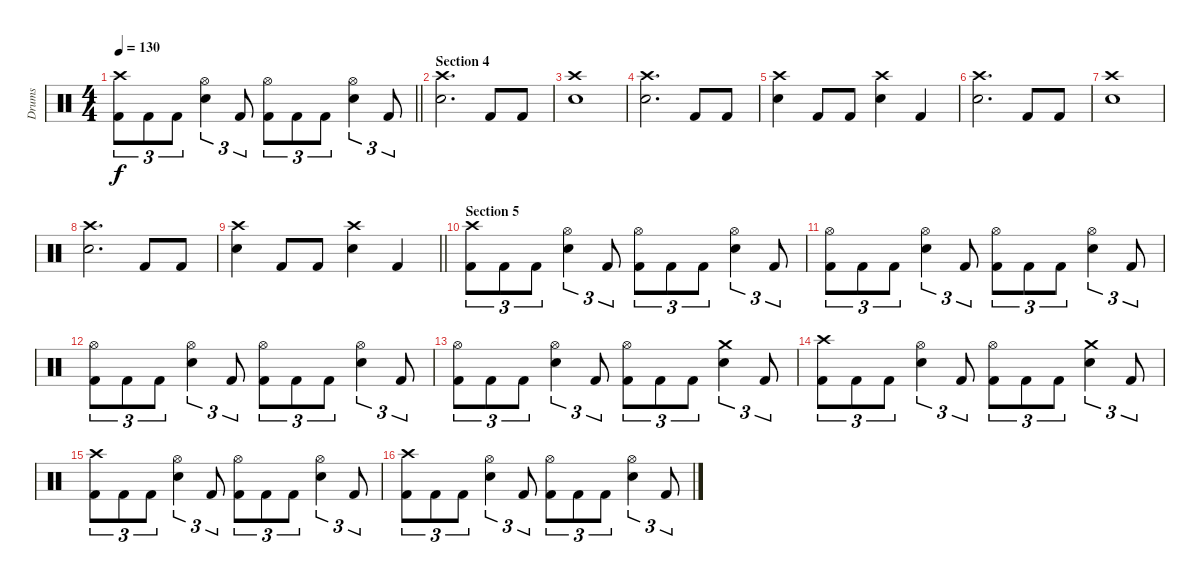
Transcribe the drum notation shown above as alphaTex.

\track ("Drums" "Drums") {instrument percussion}
\staff {score}
\articulation defaults
\ts (4 4)
\tempo 130
\clef neutral
\barLineRight lightlight
\ks c
("Crash high (hit)" "Kick (hit) 2").8{tu (3 2) dy f} "Kick (hit) 2".8{tu (3 2)} "Kick (hit) 2".8{tu (3 2)} ("Hi-Hat (open)" "Electric Snare (hit)").4{tu (3 2)} "Kick (hit) 2".8{tu (3 2)} ("Hi-Hat (open)" "Kick (hit) 2").8{tu (3 2)} "Kick (hit) 2".8{tu (3 2)} "Kick (hit) 2".8{tu (3 2)} ("Hi-Hat (open)" "Electric Snare (hit)").4{tu (3 2)} "Kick (hit) 2".8{tu (3 2)} |
\section ("" "Section 4")
("Crash high (hit)" "Electric Snare (hit)").2{d} "Kick (hit) 2".8 "Kick (hit) 2".8 |
("Crash high (hit)" "Electric Snare (hit)").1 |
("Crash high (hit)" "Electric Snare (hit)").2{d} "Kick (hit) 2".8 "Kick (hit) 2".8 |
("Crash high (hit)" "Electric Snare (hit)").4 "Kick (hit) 2".8 "Kick (hit) 2".8 ("Crash high (hit)" "Electric Snare (hit)").4 "Kick (hit) 2".4 |
("Crash high (hit)" "Electric Snare (hit)").2{d} "Kick (hit) 2".8 "Kick (hit) 2".8 |
("Crash high (hit)" "Electric Snare (hit)").1 |
("Crash high (hit)" "Electric Snare (hit)").2{d} "Kick (hit) 2".8 "Kick (hit) 2".8 |
\barLineRight lightlight
("Crash high (hit)" "Electric Snare (hit)").4 "Kick (hit) 2".8 "Kick (hit) 2".8 ("Crash high (hit)" "Electric Snare (hit)").4 "Kick (hit) 2".4 |
\section ("" "Section 5")
("Crash high (hit)" "Kick (hit) 2").8{tu (3 2)} "Kick (hit) 2".8{tu (3 2)} "Kick (hit) 2".8{tu (3 2)} ("Hi-Hat (open)" "Electric Snare (hit)").4{tu (3 2)} "Kick (hit) 2".8{tu (3 2)} ("Hi-Hat (open)" "Kick (hit) 2").8{tu (3 2)} "Kick (hit) 2".8{tu (3 2)} "Kick (hit) 2".8{tu (3 2)} ("Hi-Hat (open)" "Electric Snare (hit)").4{tu (3 2)} "Kick (hit) 2".8{tu (3 2)} |
("Hi-Hat (open)" "Kick (hit) 2").8{tu (3 2)} "Kick (hit) 2".8{tu (3 2)} "Kick (hit) 2".8{tu (3 2)} ("Hi-Hat (open)" "Electric Snare (hit)").4{tu (3 2)} "Kick (hit) 2".8{tu (3 2)} ("Hi-Hat (open)" "Kick (hit) 2").8{tu (3 2)} "Kick (hit) 2".8{tu (3 2)} "Kick (hit) 2".8{tu (3 2)} ("Hi-Hat (open)" "Electric Snare (hit)").4{tu (3 2)} "Kick (hit) 2".8{tu (3 2)} |
("Hi-Hat (open)" "Kick (hit) 2").8{tu (3 2)} "Kick (hit) 2".8{tu (3 2)} "Kick (hit) 2".8{tu (3 2)} ("Hi-Hat (open)" "Electric Snare (hit)").4{tu (3 2)} "Kick (hit) 2".8{tu (3 2)} ("Hi-Hat (open)" "Kick (hit) 2").8{tu (3 2)} "Kick (hit) 2".8{tu (3 2)} "Kick (hit) 2".8{tu (3 2)} ("Hi-Hat (open)" "Electric Snare (hit)").4{tu (3 2)} "Kick (hit) 2".8{tu (3 2)} |
("Hi-Hat (open)" "Kick (hit) 2").8{tu (3 2)} "Kick (hit) 2".8{tu (3 2)} "Kick (hit) 2".8{tu (3 2)} ("Hi-Hat (open)" "Electric Snare (hit)").4{tu (3 2)} "Kick (hit) 2".8{tu (3 2)} ("Hi-Hat (open)" "Kick (hit) 2").8{tu (3 2)} "Kick (hit) 2".8{tu (3 2)} "Kick (hit) 2".8{tu (3 2)} ("Crash medium (hit)" "Electric Snare (hit)").4{tu (3 2)} "Kick (hit) 2".8{tu (3 2)} |
("Crash high (hit)" "Kick (hit) 2").8{tu (3 2)} "Kick (hit) 2".8{tu (3 2)} "Kick (hit) 2".8{tu (3 2)} ("Hi-Hat (open)" "Electric Snare (hit)").4{tu (3 2)} "Kick (hit) 2".8{tu (3 2)} ("Hi-Hat (open)" "Kick (hit) 2").8{tu (3 2)} "Kick (hit) 2".8{tu (3 2)} "Kick (hit) 2".8{tu (3 2)} ("Crash medium (hit)" "Electric Snare (hit)").4{tu (3 2)} "Kick (hit) 2".8{tu (3 2)} |
("Crash high (hit)" "Kick (hit) 2").8{tu (3 2)} "Kick (hit) 2".8{tu (3 2)} "Kick (hit) 2".8{tu (3 2)} ("Hi-Hat (open)" "Electric Snare (hit)").4{tu (3 2)} "Kick (hit) 2".8{tu (3 2)} ("Hi-Hat (open)" "Kick (hit) 2").8{tu (3 2)} "Kick (hit) 2".8{tu (3 2)} "Kick (hit) 2".8{tu (3 2)} ("Hi-Hat (open)" "Electric Snare (hit)").4{tu (3 2)} "Kick (hit) 2".8{tu (3 2)} |
("Crash high (hit)" "Kick (hit) 2").8{tu (3 2)} "Kick (hit) 2".8{tu (3 2)} "Kick (hit) 2".8{tu (3 2)} ("Hi-Hat (open)" "Electric Snare (hit)").4{tu (3 2)} "Kick (hit) 2".8{tu (3 2)} ("Hi-Hat (open)" "Kick (hit) 2").8{tu (3 2)} "Kick (hit) 2".8{tu (3 2)} "Kick (hit) 2".8{tu (3 2)} ("Hi-Hat (open)" "Electric Snare (hit)").4{tu (3 2)} "Kick (hit) 2".8{tu (3 2)}
